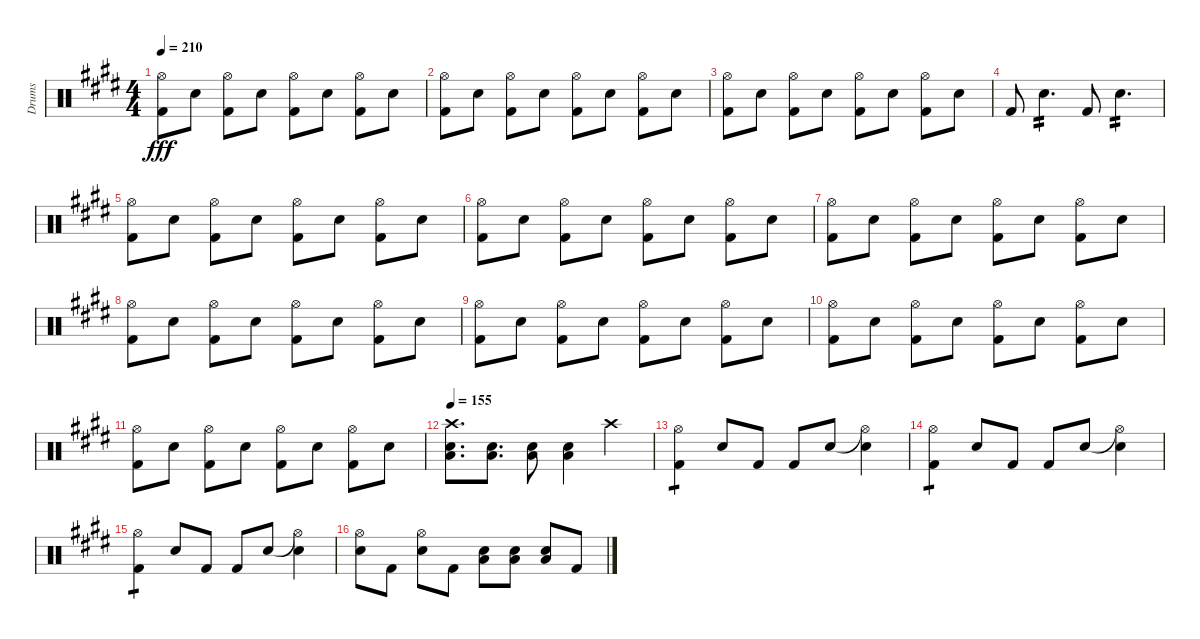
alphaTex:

\track ("Drums" "Drums") {instrument percussion}
\staff {score}
\articulation defaults
\ts (4 4)
\tempo 210
\clef neutral
\ks e
("Hi-Hat (open)" "Kick (hit) 2").8{dy fff} "Snare (hit) 2".8 ("Hi-Hat (open)" "Kick (hit) 2").8 "Snare (hit) 2".8 ("Hi-Hat (open)" "Kick (hit) 2").8 "Snare (hit) 2".8 ("Hi-Hat (open)" "Kick (hit) 2").8 "Snare (hit) 2".8 |
("Hi-Hat (open)" "Kick (hit) 2").8 "Snare (hit) 2".8 ("Hi-Hat (open)" "Kick (hit) 2").8 "Snare (hit) 2".8 ("Hi-Hat (open)" "Kick (hit) 2").8 "Snare (hit) 2".8 ("Hi-Hat (open)" "Kick (hit) 2").8 "Snare (hit) 2".8 |
("Hi-Hat (open)" "Kick (hit) 2").8 "Snare (hit) 2".8 ("Hi-Hat (open)" "Kick (hit) 2").8 "Snare (hit) 2".8 ("Hi-Hat (open)" "Kick (hit) 2").8 "Snare (hit) 2".8 ("Hi-Hat (open)" "Kick (hit) 2").8 "Snare (hit) 2".8 |
"Kick (hit) 2".8 "Snare (hit) 2".4{d tp 2} "Kick (hit) 2".8 "Snare (hit) 2".4{d tp 2} |
("Hi-Hat (open)" "Kick (hit) 2").8 "Snare (hit) 2".8 ("Hi-Hat (open)" "Kick (hit) 2").8 "Snare (hit) 2".8 ("Hi-Hat (open)" "Kick (hit) 2").8 "Snare (hit) 2".8 ("Hi-Hat (open)" "Kick (hit) 2").8 "Snare (hit) 2".8 |
("Hi-Hat (open)" "Kick (hit) 2").8 "Snare (hit) 2".8 ("Hi-Hat (open)" "Kick (hit) 2").8 "Snare (hit) 2".8 ("Hi-Hat (open)" "Kick (hit) 2").8 "Snare (hit) 2".8 ("Hi-Hat (open)" "Kick (hit) 2").8 "Snare (hit) 2".8 |
("Hi-Hat (open)" "Kick (hit) 2").8 "Snare (hit) 2".8 ("Hi-Hat (open)" "Kick (hit) 2").8 "Snare (hit) 2".8 ("Hi-Hat (open)" "Kick (hit) 2").8 "Snare (hit) 2".8 ("Hi-Hat (open)" "Kick (hit) 2").8 "Snare (hit) 2".8 |
("Hi-Hat (open)" "Kick (hit) 2").8 "Snare (hit) 2".8 ("Hi-Hat (open)" "Kick (hit) 2").8 "Snare (hit) 2".8 ("Hi-Hat (open)" "Kick (hit) 2").8 "Snare (hit) 2".8 ("Hi-Hat (open)" "Kick (hit) 2").8 "Snare (hit) 2".8 |
("Hi-Hat (open)" "Kick (hit) 2").8 "Snare (hit) 2".8 ("Hi-Hat (open)" "Kick (hit) 2").8 "Snare (hit) 2".8 ("Hi-Hat (open)" "Kick (hit) 2").8 "Snare (hit) 2".8 ("Hi-Hat (open)" "Kick (hit) 2").8 "Snare (hit) 2".8 |
("Hi-Hat (open)" "Kick (hit) 2").8 "Snare (hit) 2".8 ("Hi-Hat (open)" "Kick (hit) 2").8 "Snare (hit) 2".8 ("Hi-Hat (open)" "Kick (hit) 2").8 "Snare (hit) 2".8 ("Hi-Hat (open)" "Kick (hit) 2").8 "Snare (hit) 2".8 |
("Hi-Hat (open)" "Kick (hit) 2").8 "Snare (hit) 2".8 ("Hi-Hat (open)" "Kick (hit) 2").8 "Snare (hit) 2".8 ("Hi-Hat (open)" "Kick (hit) 2").8 "Snare (hit) 2".8 ("Hi-Hat (open)" "Kick (hit) 2").8 "Snare (hit) 2".8 |
\tempo 155
("Crash high (hit)" "Snare (hit) 2" "Low Floor Tom (hit)").8{d} ("Snare (hit) 2" "Low Floor Tom (hit)").8{d} ("Snare (hit) 2" "Low Floor Tom (hit)").8 ("Snare (hit) 2" "Low Floor Tom (hit)").4 "Crash high (hit)".4 |
("Hi-Hat (open)" "Kick (hit) 2").4{tp 1} "Snare (hit) 2".8 "Kick (hit) 2".8 "Kick (hit) 2".8 "Snare (hit) 2".8 ("Hi-Hat (open)"{t} "Snare (hit) 2").4 |
("Hi-Hat (open)" "Kick (hit) 2").4{tp 1} "Snare (hit) 2".8 "Kick (hit) 2".8 "Kick (hit) 2".8 "Snare (hit) 2".8 ("Hi-Hat (open)"{t} "Snare (hit) 2").4 |
("Hi-Hat (open)" "Kick (hit) 2").4{tp 1} "Snare (hit) 2".8 "Kick (hit) 2".8 "Kick (hit) 2".8 "Snare (hit) 2".8 ("Hi-Hat (open)"{t} "Snare (hit) 2").4 |
("Hi-Hat (open)" "Snare (hit) 2").8 "Kick (hit) 2".8 ("Hi-Hat (open)" "Snare (hit) 2").8 "Kick (hit) 2".8 ("Snare (hit) 2" "Low Floor Tom (hit)").8 ("Snare (hit) 2" "Low Floor Tom (hit)").8 ("Snare (hit) 2" "Low Floor Tom (hit)").8 "Kick (hit) 2".8
